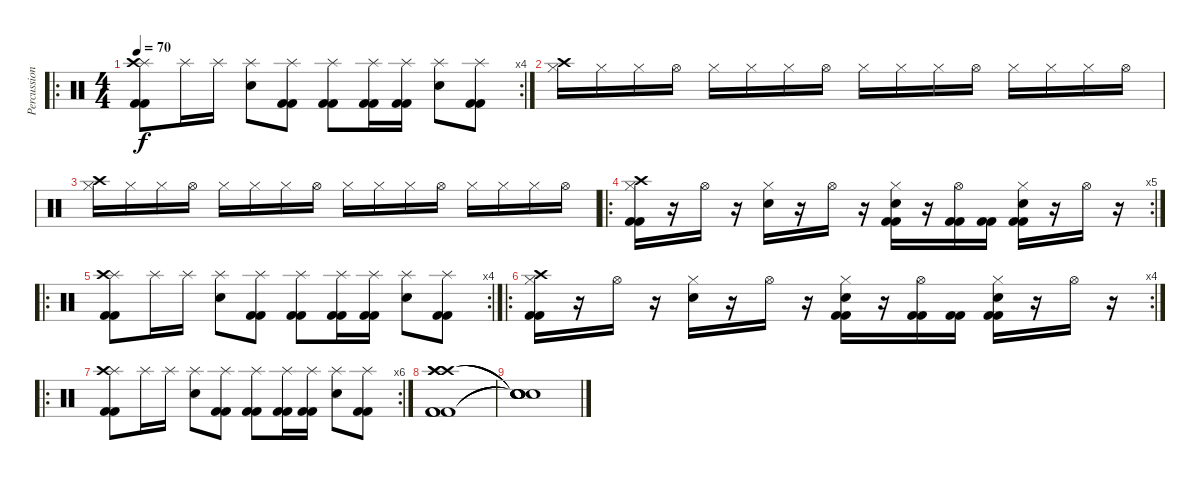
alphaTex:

\track ("Percussion" "Percussion") {instrument percussion}
\staff {score}
\articulation defaults
\ro
\rc 4
\ts (4 4)
\tempo 70
\clef neutral
\ks c
("Splash (hit)" "Crash high (hit)" "Kick (hit) 2" "Kick (hit) 2").8{dy f} "Splash (hit)".16 "Splash (hit)".16 ("Splash (hit)" "Electric Snare (hit)").8 ("Splash (hit)" "Kick (hit) 2" "Kick (hit) 2").8 ("Splash (hit)" "Kick (hit) 2" "Kick (hit) 2").8 ("Splash (hit)" "Kick (hit) 2" "Kick (hit) 2").16 ("Splash (hit)" "Kick (hit) 2" "Kick (hit) 2").16 ("Splash (hit)" "Electric Snare (hit)").8 ("Splash (hit)" "Kick (hit) 2" "Kick (hit) 2").8 |
("Hi-Hat (closed)" "Crash high (hit)").16 "Hi-Hat (closed)".16 "Hi-Hat (closed)".16 "Hi-Hat (open)".16 "Hi-Hat (closed)".16 "Hi-Hat (closed)".16 "Hi-Hat (closed)".16 "Hi-Hat (open)".16 "Hi-Hat (closed)".16 "Hi-Hat (closed)".16 "Hi-Hat (closed)".16 "Hi-Hat (open)".16 "Hi-Hat (closed)".16 "Hi-Hat (closed)".16 "Hi-Hat (closed)".16 "Hi-Hat (open)".16 |
("Hi-Hat (closed)" "Crash high (hit)").16 "Hi-Hat (closed)".16 "Hi-Hat (closed)".16 "Hi-Hat (open)".16 "Hi-Hat (closed)".16 "Hi-Hat (closed)".16 "Hi-Hat (closed)".16 "Hi-Hat (open)".16 "Hi-Hat (closed)".16 "Hi-Hat (closed)".16 "Hi-Hat (closed)".16 "Hi-Hat (open)".16 "Hi-Hat (closed)".16 "Hi-Hat (closed)".16 "Hi-Hat (closed)".16 "Hi-Hat (open)".16 |
\ro
\rc 5
("Hi-Hat (closed)" "Crash high (hit)" "Kick (hit) 2" "Kick (hit) 2").16 r.16 "Hi-Hat (open)".16 r.16 ("Hi-Hat (closed)" "Electric Snare (hit)").16 r.16 "Hi-Hat (open)".16 r.16 ("Hi-Hat (closed)" "Electric Snare (hit)" "Kick (hit) 2" "Kick (hit) 2").16 r.16 ("Hi-Hat (open)" "Kick (hit) 2" "Kick (hit) 2").16 ("Kick (hit) 2" "Kick (hit) 2").16 ("Hi-Hat (closed)" "Electric Snare (hit)" "Kick (hit) 2" "Kick (hit) 2").16 r.16 "Hi-Hat (open)".16 r.16 |
\ro
\rc 4
("Splash (hit)" "Crash high (hit)" "Kick (hit) 2" "Kick (hit) 2").8 "Splash (hit)".16 "Splash (hit)".16 ("Splash (hit)" "Electric Snare (hit)").8 ("Splash (hit)" "Kick (hit) 2" "Kick (hit) 2").8 ("Splash (hit)" "Kick (hit) 2" "Kick (hit) 2").8 ("Splash (hit)" "Kick (hit) 2" "Kick (hit) 2").16 ("Splash (hit)" "Kick (hit) 2" "Kick (hit) 2").16 ("Splash (hit)" "Electric Snare (hit)").8 ("Splash (hit)" "Kick (hit) 2" "Kick (hit) 2").8 |
\ro
\rc 4
("Hi-Hat (closed)" "Crash high (hit)" "Kick (hit) 2" "Kick (hit) 2").16 r.16 "Hi-Hat (open)".16 r.16 ("Hi-Hat (closed)" "Electric Snare (hit)").16 r.16 "Hi-Hat (open)".16 r.16 ("Hi-Hat (closed)" "Electric Snare (hit)" "Kick (hit) 2" "Kick (hit) 2").16 r.16 ("Hi-Hat (open)" "Kick (hit) 2" "Kick (hit) 2").16 ("Kick (hit) 2" "Kick (hit) 2").16 ("Hi-Hat (closed)" "Electric Snare (hit)" "Kick (hit) 2" "Kick (hit) 2").16 r.16 "Hi-Hat (open)".16 r.16 |
\ro
\rc 6
("Splash (hit)" "Crash high (hit)" "Kick (hit) 2" "Kick (hit) 2").8 "Splash (hit)".16 "Splash (hit)".16 ("Splash (hit)" "Electric Snare (hit)").8 ("Splash (hit)" "Kick (hit) 2" "Kick (hit) 2").8 ("Splash (hit)" "Kick (hit) 2" "Kick (hit) 2").8 ("Splash (hit)" "Kick (hit) 2" "Kick (hit) 2").16 ("Splash (hit)" "Kick (hit) 2" "Kick (hit) 2").16 ("Splash (hit)" "Electric Snare (hit)").8 ("Splash (hit)" "Kick (hit) 2" "Kick (hit) 2").8 |
("Crash high (hit)" "Crash high (hit)" "Crash high (hit)" "Kick (hit) 2" "Kick (hit) 2" "Kick (hit) 2").1 |
("Snare (hit)"{t} "Snare (hit)"{t} "Snare (hit)"{t} "Snare (hit)"{t} "Snare (hit)"{t} "Snare (hit)"{t}).1
